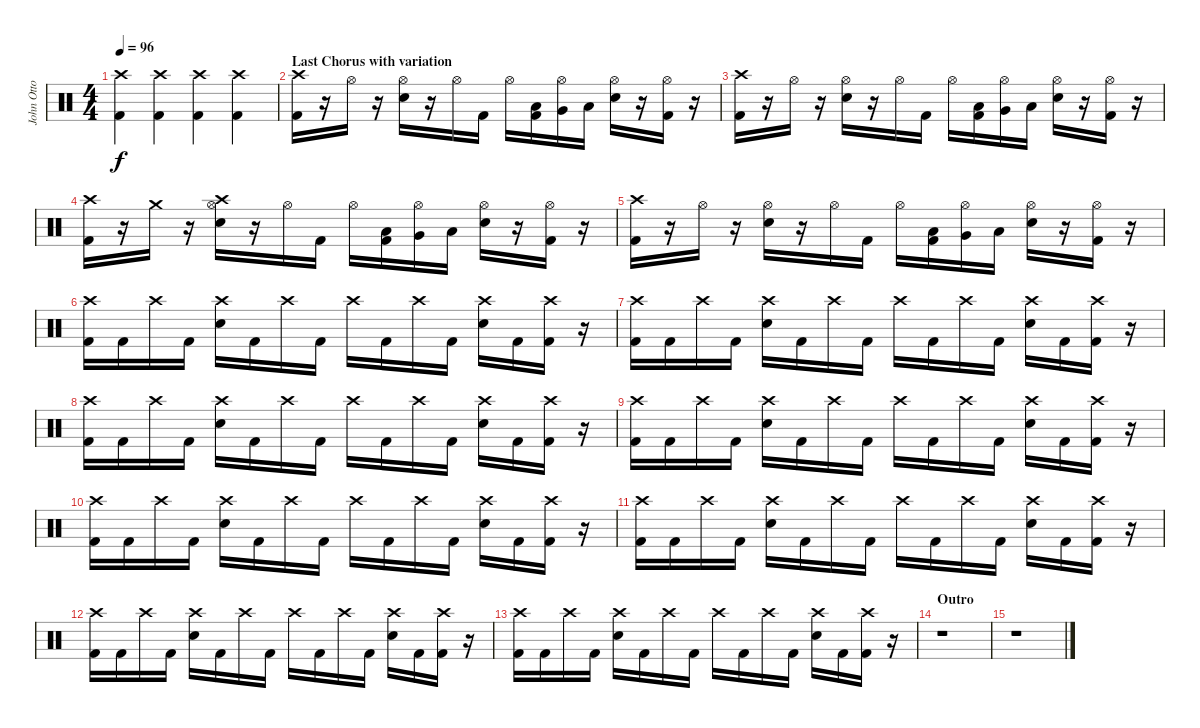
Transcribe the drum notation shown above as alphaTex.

\track ("John Otto - Drums" "John Otto ") {instrument percussion}
\staff {score}
\articulation defaults
\ts (4 4)
\tempo 96
\clef neutral
\ks c
("Crash high (hit)" "Kick (hit) 2").4{dy f} ("Crash high (hit)" "Kick (hit) 2").4 ("Crash high (hit)" "Kick (hit) 2").4 ("Crash high (hit)" "Kick (hit) 2").4 |
\section ("" "Last Chorus with variation")
("Crash high (hit)" "Kick (hit) 2").16 r.16 "Hi-Hat (open)".16 r.16 ("Hi-Hat (open)" "Snare (hit) 2").16 r.16 "Hi-Hat (open)".16 "Kick (hit) 2".16 "Hi-Hat (open)".16 ("Low Tom (hit)" "Kick (hit) 2").16 ("Hi-Hat (open)" "Very Low Tom (hit)").16 "Low Floor Tom (hit)".16 ("Hi-Hat (open)" "Snare (hit) 2").16 r.16 ("Hi-Hat (open)" "Kick (hit) 2").16 r.16 |
("Crash high (hit)" "Kick (hit) 2").16 r.16 "Hi-Hat (open)".16 r.16 ("Hi-Hat (open)" "Snare (hit) 2").16 r.16 "Hi-Hat (open)".16 "Kick (hit) 2".16 "Hi-Hat (open)".16 ("Low Tom (hit)" "Kick (hit) 2").16 ("Hi-Hat (open)" "Very Low Tom (hit)").16 "Low Floor Tom (hit)".16 ("Hi-Hat (open)" "Snare (hit) 2").16 r.16 ("Hi-Hat (open)" "Kick (hit) 2").16 r.16 |
("Crash high (hit)" "Kick (hit) 2").16 r.16 "Crash medium (hit)".16 r.16 ("Crash high (hit)" "Hi-Hat (open)" "Snare (hit) 2").16 r.16 "Hi-Hat (open)".16 "Kick (hit) 2".16 "Hi-Hat (open)".16 ("Low Tom (hit)" "Kick (hit) 2").16 ("Hi-Hat (open)" "Very Low Tom (hit)").16 "Low Floor Tom (hit)".16 ("Hi-Hat (open)" "Snare (hit) 2").16 r.16 ("Hi-Hat (open)" "Kick (hit) 2").16 r.16 |
("Crash high (hit)" "Kick (hit) 2").16 r.16 "Hi-Hat (open)".16 r.16 ("Hi-Hat (open)" "Snare (hit) 2").16 r.16 "Hi-Hat (open)".16 "Kick (hit) 2".16 "Hi-Hat (open)".16 ("Low Tom (hit)" "Kick (hit) 2").16 ("Hi-Hat (open)" "Very Low Tom (hit)").16 "Low Floor Tom (hit)".16 ("Hi-Hat (open)" "Snare (hit) 2").16 r.16 ("Hi-Hat (open)" "Kick (hit) 2").16 r.16 |
("Crash high (hit)" "Kick (hit) 2").16 "Kick (hit) 2".16 "Crash high (hit)".16 "Kick (hit) 2".16 ("Crash high (hit)" "Snare (hit) 2").16 "Kick (hit) 2".16 "Crash high (hit)".16 "Kick (hit) 2".16 "Crash high (hit)".16 "Kick (hit) 2".16 "Crash high (hit)".16 "Kick (hit) 2".16 ("Crash high (hit)" "Snare (hit) 2").16 "Kick (hit) 2".16 ("Crash high (hit)" "Kick (hit) 2").16 r.16 |
("Crash high (hit)" "Kick (hit) 2").16 "Kick (hit) 2".16 "Crash high (hit)".16 "Kick (hit) 2".16 ("Crash high (hit)" "Snare (hit) 2").16 "Kick (hit) 2".16 "Crash high (hit)".16 "Kick (hit) 2".16 "Crash high (hit)".16 "Kick (hit) 2".16 "Crash high (hit)".16 "Kick (hit) 2".16 ("Crash high (hit)" "Snare (hit) 2").16 "Kick (hit) 2".16 ("Crash high (hit)" "Kick (hit) 2").16 r.16 |
("Crash high (hit)" "Kick (hit) 2").16 "Kick (hit) 2".16 "Crash high (hit)".16 "Kick (hit) 2".16 ("Crash high (hit)" "Snare (hit) 2").16 "Kick (hit) 2".16 "Crash high (hit)".16 "Kick (hit) 2".16 "Crash high (hit)".16 "Kick (hit) 2".16 "Crash high (hit)".16 "Kick (hit) 2".16 ("Crash high (hit)" "Snare (hit) 2").16 "Kick (hit) 2".16 ("Crash high (hit)" "Kick (hit) 2").16 r.16 |
("Crash high (hit)" "Kick (hit) 2").16 "Kick (hit) 2".16 "Crash high (hit)".16 "Kick (hit) 2".16 ("Crash high (hit)" "Snare (hit) 2").16 "Kick (hit) 2".16 "Crash high (hit)".16 "Kick (hit) 2".16 "Crash high (hit)".16 "Kick (hit) 2".16 "Crash high (hit)".16 "Kick (hit) 2".16 ("Crash high (hit)" "Snare (hit) 2").16 "Kick (hit) 2".16 ("Crash high (hit)" "Kick (hit) 2").16 r.16 |
("Crash high (hit)" "Kick (hit) 2").16 "Kick (hit) 2".16 "Crash high (hit)".16 "Kick (hit) 2".16 ("Crash high (hit)" "Snare (hit) 2").16 "Kick (hit) 2".16 "Crash high (hit)".16 "Kick (hit) 2".16 "Crash high (hit)".16 "Kick (hit) 2".16 "Crash high (hit)".16 "Kick (hit) 2".16 ("Crash high (hit)" "Snare (hit) 2").16 "Kick (hit) 2".16 ("Crash high (hit)" "Kick (hit) 2").16 r.16 |
("Crash high (hit)" "Kick (hit) 2").16 "Kick (hit) 2".16 "Crash high (hit)".16 "Kick (hit) 2".16 ("Crash high (hit)" "Snare (hit) 2").16 "Kick (hit) 2".16 "Crash high (hit)".16 "Kick (hit) 2".16 "Crash high (hit)".16 "Kick (hit) 2".16 "Crash high (hit)".16 "Kick (hit) 2".16 ("Crash high (hit)" "Snare (hit) 2").16 "Kick (hit) 2".16 ("Crash high (hit)" "Kick (hit) 2").16 r.16 |
("Crash high (hit)" "Kick (hit) 2").16 "Kick (hit) 2".16 "Crash high (hit)".16 "Kick (hit) 2".16 ("Crash high (hit)" "Snare (hit) 2").16 "Kick (hit) 2".16 "Crash high (hit)".16 "Kick (hit) 2".16 "Crash high (hit)".16 "Kick (hit) 2".16 "Crash high (hit)".16 "Kick (hit) 2".16 ("Crash high (hit)" "Snare (hit) 2").16 "Kick (hit) 2".16 ("Crash high (hit)" "Kick (hit) 2").16 r.16 |
("Crash high (hit)" "Kick (hit) 2").16 "Kick (hit) 2".16 "Crash high (hit)".16 "Kick (hit) 2".16 ("Crash high (hit)" "Snare (hit) 2").16 "Kick (hit) 2".16 "Crash high (hit)".16 "Kick (hit) 2".16 "Crash high (hit)".16 "Kick (hit) 2".16 "Crash high (hit)".16 "Kick (hit) 2".16 ("Crash high (hit)" "Snare (hit) 2").16 "Kick (hit) 2".16 ("Crash high (hit)" "Kick (hit) 2").16 r.16 |
\section ("" "Outro")
r.1 |
r.1
